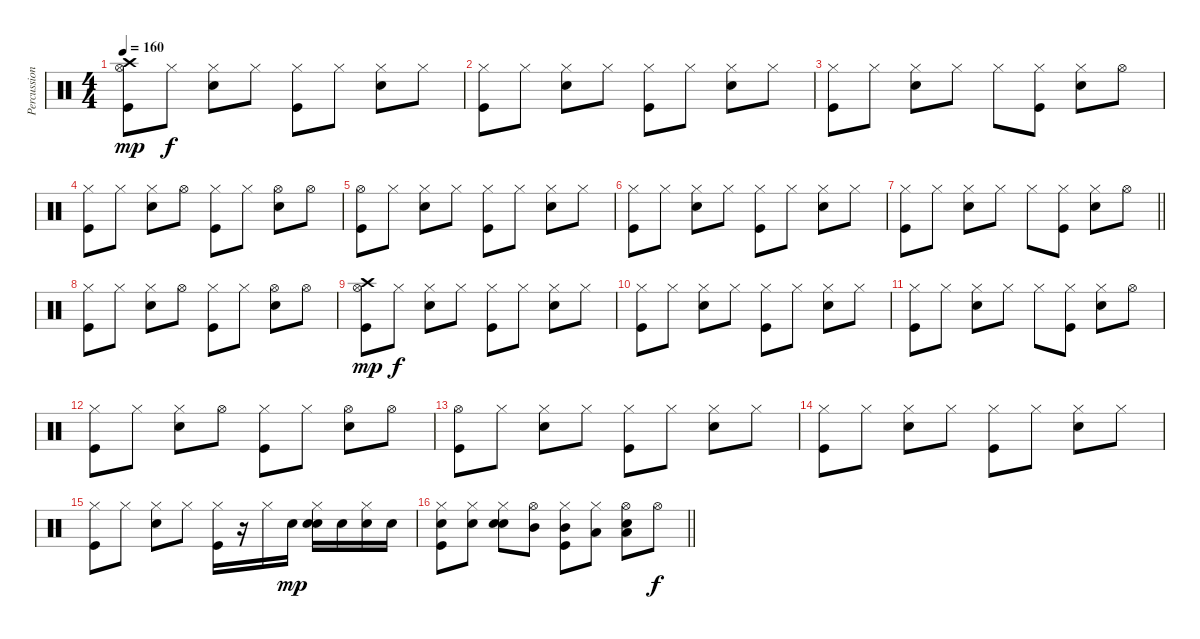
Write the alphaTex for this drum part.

\track ("Percussioni" "Percussion") {instrument percussion}
\staff {score}
\articulation defaults
\ts (4 4)
\tempo 160
\clef neutral
\ks c
("Crash high (hit)" "Hi-Hat (open)" "Kick (hit)").8{dy mp} "Hi-Hat (closed)".8{dy f} ("Hi-Hat (closed)" "Snare (hit) 2").8 "Hi-Hat (closed)".8 ("Hi-Hat (closed)" "Kick (hit)").8 "Hi-Hat (closed)".8 ("Hi-Hat (closed)" "Snare (hit) 2").8 "Hi-Hat (closed)".8 |
("Hi-Hat (closed)" "Kick (hit)").8 "Hi-Hat (closed)".8 ("Hi-Hat (closed)" "Snare (hit) 2").8 "Hi-Hat (closed)".8 ("Hi-Hat (closed)" "Kick (hit)").8 "Hi-Hat (closed)".8 ("Hi-Hat (closed)" "Snare (hit) 2").8 "Hi-Hat (closed)".8 |
("Hi-Hat (closed)" "Kick (hit)").8 "Hi-Hat (closed)".8 ("Hi-Hat (closed)" "Snare (hit) 2").8 "Hi-Hat (closed)".8 "Hi-Hat (closed)".8 ("Hi-Hat (closed)" "Kick (hit)").8 ("Hi-Hat (closed)" "Snare (hit) 2").8 "Hi-Hat (open)".8 |
("Hi-Hat (closed)" "Kick (hit)").8 "Hi-Hat (closed)".8 ("Hi-Hat (closed)" "Snare (hit) 2").8 "Hi-Hat (open)".8 ("Hi-Hat (closed)" "Kick (hit)").8 "Hi-Hat (closed)".8 ("Hi-Hat (open)" "Snare (hit) 2").8 "Hi-Hat (open)".8 |
("Hi-Hat (open)" "Kick (hit)").8 "Hi-Hat (closed)".8 ("Hi-Hat (closed)" "Snare (hit) 2").8 "Hi-Hat (closed)".8 ("Hi-Hat (closed)" "Kick (hit)").8 "Hi-Hat (closed)".8 ("Hi-Hat (closed)" "Snare (hit) 2").8 "Hi-Hat (closed)".8 |
("Hi-Hat (closed)" "Kick (hit)").8 "Hi-Hat (closed)".8 ("Hi-Hat (closed)" "Snare (hit) 2").8 "Hi-Hat (closed)".8 ("Hi-Hat (closed)" "Kick (hit)").8 "Hi-Hat (closed)".8 ("Hi-Hat (closed)" "Snare (hit) 2").8 "Hi-Hat (closed)".8 |
\barLineRight lightlight
("Hi-Hat (closed)" "Kick (hit)").8 "Hi-Hat (closed)".8 ("Hi-Hat (closed)" "Snare (hit) 2").8 "Hi-Hat (closed)".8 "Hi-Hat (closed)".8 ("Hi-Hat (closed)" "Kick (hit)").8 ("Hi-Hat (closed)" "Snare (hit) 2").8 "Hi-Hat (open)".8 |
("Hi-Hat (closed)" "Kick (hit)").8 "Hi-Hat (closed)".8 ("Hi-Hat (closed)" "Snare (hit) 2").8 "Hi-Hat (open)".8 ("Hi-Hat (closed)" "Kick (hit)").8 "Hi-Hat (closed)".8 ("Hi-Hat (open)" "Snare (hit) 2").8 "Hi-Hat (open)".8 |
("Crash high (hit)" "Hi-Hat (open)" "Kick (hit)").8{dy mp} "Hi-Hat (closed)".8{dy f} ("Hi-Hat (closed)" "Snare (hit) 2").8 "Hi-Hat (closed)".8 ("Hi-Hat (closed)" "Kick (hit)").8 "Hi-Hat (closed)".8 ("Hi-Hat (closed)" "Snare (hit) 2").8 "Hi-Hat (closed)".8 |
("Hi-Hat (closed)" "Kick (hit)").8 "Hi-Hat (closed)".8 ("Hi-Hat (closed)" "Snare (hit) 2").8 "Hi-Hat (closed)".8 ("Hi-Hat (closed)" "Kick (hit)").8 "Hi-Hat (closed)".8 ("Hi-Hat (closed)" "Snare (hit) 2").8 "Hi-Hat (closed)".8 |
("Hi-Hat (closed)" "Kick (hit)").8 "Hi-Hat (closed)".8 ("Hi-Hat (closed)" "Snare (hit) 2").8 "Hi-Hat (closed)".8 "Hi-Hat (closed)".8 ("Hi-Hat (closed)" "Kick (hit)").8 ("Hi-Hat (closed)" "Snare (hit) 2").8 "Hi-Hat (open)".8 |
("Hi-Hat (closed)" "Kick (hit)").8 "Hi-Hat (closed)".8 ("Hi-Hat (closed)" "Snare (hit) 2").8 "Hi-Hat (open)".8 ("Hi-Hat (closed)" "Kick (hit)").8 "Hi-Hat (closed)".8 ("Hi-Hat (open)" "Snare (hit) 2").8 "Hi-Hat (open)".8 |
("Hi-Hat (open)" "Kick (hit)").8 "Hi-Hat (closed)".8 ("Hi-Hat (closed)" "Snare (hit) 2").8 "Hi-Hat (closed)".8 ("Hi-Hat (closed)" "Kick (hit)").8 "Hi-Hat (closed)".8 ("Hi-Hat (closed)" "Snare (hit) 2").8 "Hi-Hat (closed)".8 |
("Hi-Hat (closed)" "Kick (hit)").8 "Hi-Hat (closed)".8 ("Hi-Hat (closed)" "Snare (hit) 2").8 "Hi-Hat (closed)".8 ("Hi-Hat (closed)" "Kick (hit)").8 "Hi-Hat (closed)".8 ("Hi-Hat (closed)" "Snare (hit) 2").8 "Hi-Hat (closed)".8 |
("Hi-Hat (closed)" "Kick (hit)").8 "Hi-Hat (closed)".8 ("Hi-Hat (closed)" "Snare (hit) 2").8 "Hi-Hat (closed)".8 ("Hi-Hat (closed)" "Kick (hit)").16 r.16 "Hi-Hat (closed)".16 "Snare (hit) 2".16{dy mp} ("Snare (hit) 2" "Hi-Hat (closed)" "Snare (hit) 2").16 "Snare (hit) 2".16 ("Snare (hit) 2" "Hi-Hat (closed)").16 "Snare (hit) 2".16 |
\barLineRight lightlight
("Snare (hit) 2" "Hi-Hat (closed)" "Kick (hit)").8 ("Snare (hit) 2" "Hi-Hat (closed)").8 ("Snare (hit) 2" "Hi-Hat (closed)" "Snare (hit) 2").8 ("Mid Tom (hit)" "Hi-Hat (open)").8 ("Mid Tom (hit)" "Hi-Hat (closed)" "Kick (hit)").8 ("Low Tom (hit)" "Hi-Hat (closed)").8 ("Low Tom (hit)" "Hi-Hat (open)" "Snare (hit) 2").8 "Hi-Hat (open)".8{dy f}
